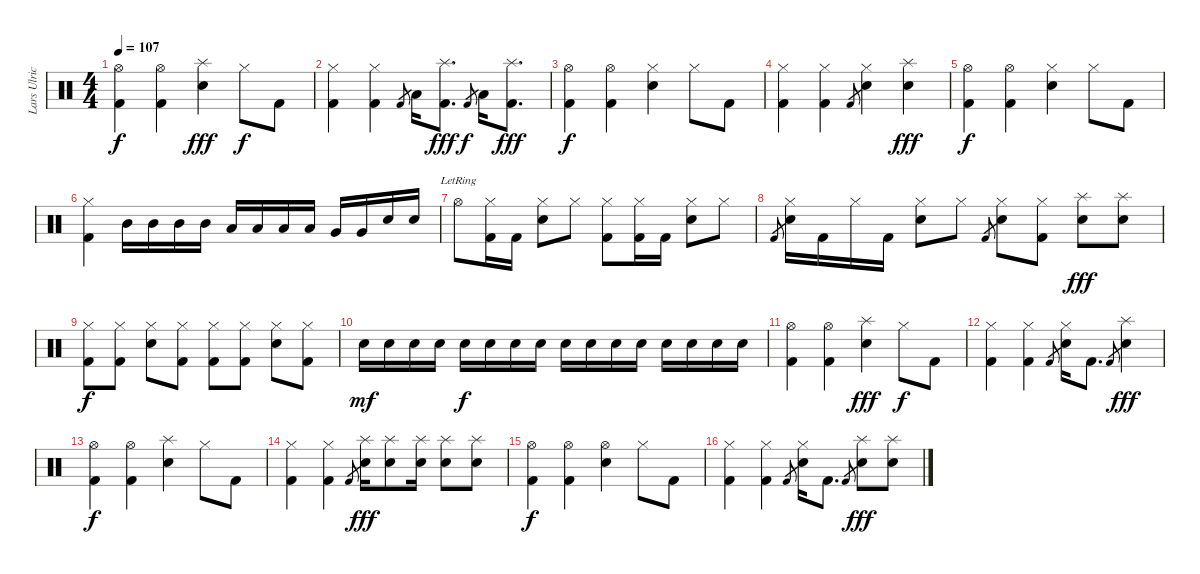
\track ("Lars Ulrich" "Lars Ulric") {instrument percussion}
\staff {score}
\articulation defaults
\ts (4 4)
\tempo 107
\clef neutral
\ks c
("Hi-Hat (open)" "Kick (hit) 2").4{dy f} ("Hi-Hat (open)" "Kick (hit) 2").4 ("Splash (hit)" "Electric Snare (hit)").4{dy fff} "Hi-Hat (closed)".8{dy f} "Kick (hit) 2".8 |
("Hi-Hat (closed)" "Kick (hit) 2").4 ("Hi-Hat (closed)" "Kick (hit) 2").4 "Kick (hit) 2".8{gr} "Low Tom (hit)".16 ("Splash (hit)" "Kick (hit) 2").8{d dy fff} "Kick (hit) 2".8{gr dy f} "Low Tom (hit)".16 ("Splash (hit)" "Kick (hit) 2").8{d dy fff} |
("Hi-Hat (open)" "Kick (hit) 2").4{dy f} ("Hi-Hat (open)" "Kick (hit) 2").4 ("Hi-Hat (closed)" "Electric Snare (hit)").4 "Hi-Hat (closed)".8 "Kick (hit) 2".8 |
("Hi-Hat (closed)" "Kick (hit) 2").4 ("Hi-Hat (closed)" "Kick (hit) 2").4 "Kick (hit) 2".8{gr} ("Hi-Hat (closed)" "Electric Snare (hit)").4 ("Splash (hit)" "Electric Snare (hit)").4{dy fff} |
("Hi-Hat (open)" "Kick (hit) 2").4{dy f} ("Hi-Hat (open)" "Kick (hit) 2").4 ("Hi-Hat (closed)" "Electric Snare (hit)").4 "Hi-Hat (closed)".8 "Kick (hit) 2".8 |
("Hi-Hat (closed)" "Kick (hit) 2").4 "Mid Tom (hit)".16 "Mid Tom (hit)".16 "Mid Tom (hit)".16 "Mid Tom (hit)".16 "Low Tom (hit)".16 "Low Tom (hit)".16 "Low Tom (hit)".16 "Low Tom (hit)".16 "Very Low Tom (hit)".16 "Very Low Tom (hit)".16 "Electric Snare (hit)".16 "Electric Snare (hit)".16 |
"Hi-Hat (open)"{lr}.8 ("Hi-Hat (closed)" "Kick (hit) 2").16 "Kick (hit) 2".16 ("Hi-Hat (closed)" "Electric Snare (hit)").8 "Hi-Hat (closed)".8 ("Hi-Hat (closed)" "Kick (hit) 2").8 ("Hi-Hat (closed)" "Kick (hit) 2").16 "Kick (hit) 2".16 ("Hi-Hat (closed)" "Electric Snare (hit)").8 "Hi-Hat (closed)".8 |
"Kick (hit) 2".8{gr} ("Hi-Hat (closed)" "Electric Snare (hit)").16 "Kick (hit) 2".16 "Hi-Hat (closed)".16 "Kick (hit) 2".16 ("Hi-Hat (closed)" "Electric Snare (hit)").8 "Hi-Hat (closed)".8 "Kick (hit) 2".8{gr} ("Hi-Hat (closed)" "Electric Snare (hit)").8 ("Hi-Hat (closed)" "Kick (hit) 2").8 ("Splash (hit)" "Electric Snare (hit)").8{dy fff} ("Splash (hit)" "Electric Snare (hit)").8 |
("Hi-Hat (closed)" "Kick (hit) 2").8{dy f} ("Hi-Hat (closed)" "Kick (hit) 2").8 ("Hi-Hat (closed)" "Electric Snare (hit)").8 ("Hi-Hat (closed)" "Kick (hit) 2").8 ("Hi-Hat (closed)" "Kick (hit) 2").8 ("Hi-Hat (closed)" "Kick (hit) 2").8 ("Hi-Hat (closed)" "Electric Snare (hit)").8 ("Hi-Hat (closed)" "Kick (hit) 2").8 |
"Electric Snare (hit)".16{dy mf} "Electric Snare (hit)".16 "Electric Snare (hit)".16 "Electric Snare (hit)".16 "Electric Snare (hit)".16{dy f} "Electric Snare (hit)".16 "Electric Snare (hit)".16 "Electric Snare (hit)".16 "Electric Snare (hit)".16 "Electric Snare (hit)".16 "Electric Snare (hit)".16 "Electric Snare (hit)".16 "Electric Snare (hit)".16 "Electric Snare (hit)".16 "Electric Snare (hit)".16 "Electric Snare (hit)".16 |
("Hi-Hat (open)" "Kick (hit) 2").4 ("Hi-Hat (open)" "Kick (hit) 2").4 ("Splash (hit)" "Electric Snare (hit)").4{dy fff} "Hi-Hat (closed)".8{dy f} "Kick (hit) 2".8 |
("Hi-Hat (closed)" "Kick (hit) 2").4 ("Hi-Hat (closed)" "Kick (hit) 2").4 "Kick (hit) 2".8{gr} ("Hi-Hat (closed)" "Electric Snare (hit)").16 "Kick (hit) 2".8{d} "Kick (hit) 2".8{gr} ("Splash (hit)" "Electric Snare (hit)").4{dy fff} |
("Hi-Hat (open)" "Kick (hit) 2").4{dy f} ("Hi-Hat (open)" "Kick (hit) 2").4 ("Splash (hit)" "Electric Snare (hit)").4 "Hi-Hat (closed)".8 "Kick (hit) 2".8 |
("Hi-Hat (closed)" "Kick (hit) 2").4 ("Hi-Hat (closed)" "Kick (hit) 2").4 "Kick (hit) 2".8{gr} ("Splash (hit)" "Electric Snare (hit)").16{dy fff} ("Splash (hit)" "Electric Snare (hit)").8 ("Splash (hit)" "Electric Snare (hit)").16 ("Splash (hit)" "Electric Snare (hit)").8 ("Splash (hit)" "Electric Snare (hit)").8 |
("Hi-Hat (open)" "Kick (hit) 2").4{dy f} ("Hi-Hat (open)" "Kick (hit) 2").4 ("Hi-Hat (open)" "Electric Snare (hit)").4 "Hi-Hat (closed)".8 "Kick (hit) 2".8 |
("Hi-Hat (closed)" "Kick (hit) 2").4 ("Hi-Hat (closed)" "Kick (hit) 2").4 "Kick (hit) 2".8{gr} ("Hi-Hat (closed)" "Electric Snare (hit)").16 "Kick (hit) 2".8{d} "Kick (hit) 2".8{gr} ("Splash (hit)" "Electric Snare (hit)").8{dy fff} ("Splash (hit)" "Electric Snare (hit)").8
